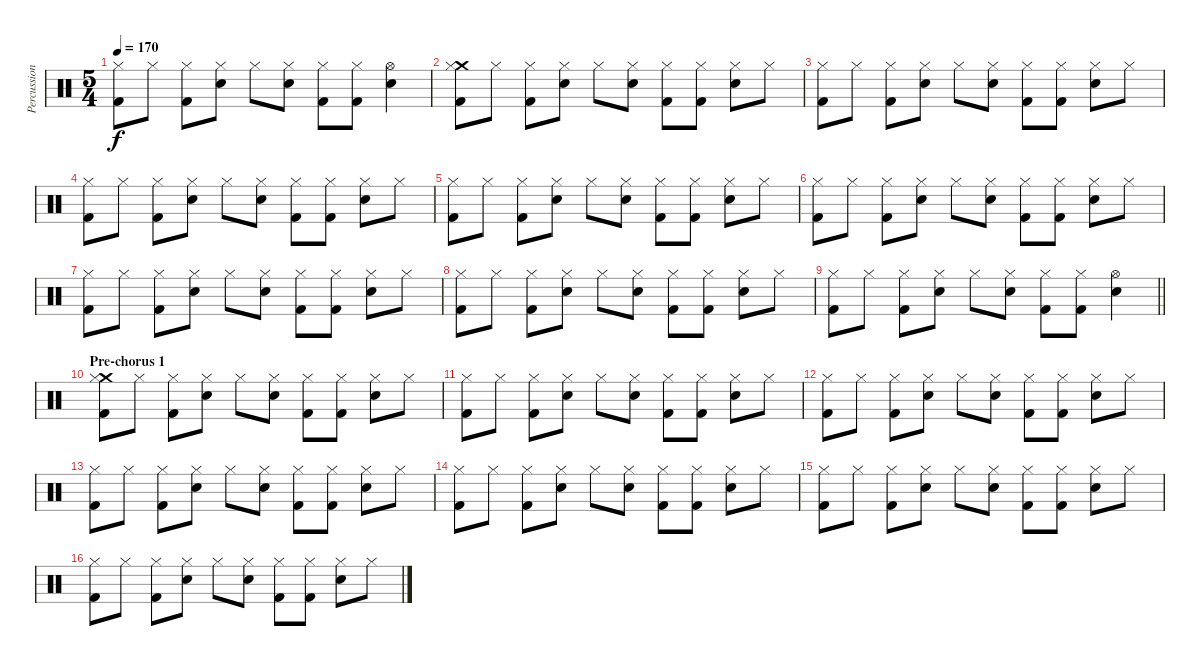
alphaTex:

\track ("Percussion" "Percussion") {instrument percussion}
\staff {score}
\articulation defaults
\ts (5 4)
\tempo 170
\clef neutral
\ks c
("Hi-Hat (closed)" "Kick (hit) 2").8{dy f} "Hi-Hat (closed)".8 ("Hi-Hat (closed)" "Kick (hit) 2").8 ("Hi-Hat (closed)" "Electric Snare (hit)").8 "Hi-Hat (closed)".8 ("Hi-Hat (closed)" "Electric Snare (hit)").8 ("Hi-Hat (closed)" "Kick (hit) 2").8 ("Hi-Hat (closed)" "Kick (hit) 2").8 ("Hi-Hat (open)" "Electric Snare (hit)").4 |
("Crash medium (hit)" "Hi-Hat (closed)" "Kick (hit) 2").8 "Hi-Hat (closed)".8 ("Hi-Hat (closed)" "Kick (hit) 2").8 ("Hi-Hat (closed)" "Electric Snare (hit)").8 "Hi-Hat (closed)".8 ("Hi-Hat (closed)" "Electric Snare (hit)").8 ("Hi-Hat (closed)" "Kick (hit) 2").8 ("Hi-Hat (closed)" "Kick (hit) 2").8 ("Hi-Hat (closed)" "Electric Snare (hit)").8 "Hi-Hat (closed)".8 |
("Hi-Hat (closed)" "Kick (hit) 2").8 "Hi-Hat (closed)".8 ("Hi-Hat (closed)" "Kick (hit) 2").8 ("Hi-Hat (closed)" "Electric Snare (hit)").8 "Hi-Hat (closed)".8 ("Hi-Hat (closed)" "Electric Snare (hit)").8 ("Hi-Hat (closed)" "Kick (hit) 2").8 ("Hi-Hat (closed)" "Kick (hit) 2").8 ("Hi-Hat (closed)" "Electric Snare (hit)").8 "Hi-Hat (closed)".8 |
("Hi-Hat (closed)" "Kick (hit) 2").8 "Hi-Hat (closed)".8 ("Hi-Hat (closed)" "Kick (hit) 2").8 ("Hi-Hat (closed)" "Electric Snare (hit)").8 "Hi-Hat (closed)".8 ("Hi-Hat (closed)" "Electric Snare (hit)").8 ("Hi-Hat (closed)" "Kick (hit) 2").8 ("Hi-Hat (closed)" "Kick (hit) 2").8 ("Hi-Hat (closed)" "Electric Snare (hit)").8 "Hi-Hat (closed)".8 |
("Hi-Hat (closed)" "Kick (hit) 2").8 "Hi-Hat (closed)".8 ("Hi-Hat (closed)" "Kick (hit) 2").8 ("Hi-Hat (closed)" "Electric Snare (hit)").8 "Hi-Hat (closed)".8 ("Hi-Hat (closed)" "Electric Snare (hit)").8 ("Hi-Hat (closed)" "Kick (hit) 2").8 ("Hi-Hat (closed)" "Kick (hit) 2").8 ("Hi-Hat (closed)" "Electric Snare (hit)").8 "Hi-Hat (closed)".8 |
("Hi-Hat (closed)" "Kick (hit) 2").8 "Hi-Hat (closed)".8 ("Hi-Hat (closed)" "Kick (hit) 2").8 ("Hi-Hat (closed)" "Electric Snare (hit)").8 "Hi-Hat (closed)".8 ("Hi-Hat (closed)" "Electric Snare (hit)").8 ("Hi-Hat (closed)" "Kick (hit) 2").8 ("Hi-Hat (closed)" "Kick (hit) 2").8 ("Hi-Hat (closed)" "Electric Snare (hit)").8 "Hi-Hat (closed)".8 |
("Hi-Hat (closed)" "Kick (hit) 2").8 "Hi-Hat (closed)".8 ("Hi-Hat (closed)" "Kick (hit) 2").8 ("Hi-Hat (closed)" "Electric Snare (hit)").8 "Hi-Hat (closed)".8 ("Hi-Hat (closed)" "Electric Snare (hit)").8 ("Hi-Hat (closed)" "Kick (hit) 2").8 ("Hi-Hat (closed)" "Kick (hit) 2").8 ("Hi-Hat (closed)" "Electric Snare (hit)").8 "Hi-Hat (closed)".8 |
("Hi-Hat (closed)" "Kick (hit) 2").8 "Hi-Hat (closed)".8 ("Hi-Hat (closed)" "Kick (hit) 2").8 ("Hi-Hat (closed)" "Electric Snare (hit)").8 "Hi-Hat (closed)".8 ("Hi-Hat (closed)" "Electric Snare (hit)").8 ("Hi-Hat (closed)" "Kick (hit) 2").8 ("Hi-Hat (closed)" "Kick (hit) 2").8 ("Hi-Hat (closed)" "Electric Snare (hit)").8 "Hi-Hat (closed)".8 |
\barLineRight lightlight
("Hi-Hat (closed)" "Kick (hit) 2").8 "Hi-Hat (closed)".8 ("Hi-Hat (closed)" "Kick (hit) 2").8 ("Hi-Hat (closed)" "Electric Snare (hit)").8 "Hi-Hat (closed)".8 ("Hi-Hat (closed)" "Electric Snare (hit)").8 ("Hi-Hat (closed)" "Kick (hit) 2").8 ("Hi-Hat (closed)" "Kick (hit) 2").8 ("Hi-Hat (open)" "Electric Snare (hit)").4 |
\section ("" "Pre-chorus 1")
("Crash medium (hit)" "Hi-Hat (closed)" "Kick (hit) 2").8 "Hi-Hat (closed)".8 ("Hi-Hat (closed)" "Kick (hit) 2").8 ("Hi-Hat (closed)" "Electric Snare (hit)").8 "Hi-Hat (closed)".8 ("Hi-Hat (closed)" "Electric Snare (hit)").8 ("Hi-Hat (closed)" "Kick (hit) 2").8 ("Hi-Hat (closed)" "Kick (hit) 2").8 ("Hi-Hat (closed)" "Electric Snare (hit)").8 "Hi-Hat (closed)".8 |
("Hi-Hat (closed)" "Kick (hit) 2").8 "Hi-Hat (closed)".8 ("Hi-Hat (closed)" "Kick (hit) 2").8 ("Hi-Hat (closed)" "Electric Snare (hit)").8 "Hi-Hat (closed)".8 ("Hi-Hat (closed)" "Electric Snare (hit)").8 ("Hi-Hat (closed)" "Kick (hit) 2").8 ("Hi-Hat (closed)" "Kick (hit) 2").8 ("Hi-Hat (closed)" "Electric Snare (hit)").8 "Hi-Hat (closed)".8 |
("Hi-Hat (closed)" "Kick (hit) 2").8 "Hi-Hat (closed)".8 ("Hi-Hat (closed)" "Kick (hit) 2").8 ("Hi-Hat (closed)" "Electric Snare (hit)").8 "Hi-Hat (closed)".8 ("Hi-Hat (closed)" "Electric Snare (hit)").8 ("Hi-Hat (closed)" "Kick (hit) 2").8 ("Hi-Hat (closed)" "Kick (hit) 2").8 ("Hi-Hat (closed)" "Electric Snare (hit)").8 "Hi-Hat (closed)".8 |
("Hi-Hat (closed)" "Kick (hit) 2").8 "Hi-Hat (closed)".8 ("Hi-Hat (closed)" "Kick (hit) 2").8 ("Hi-Hat (closed)" "Electric Snare (hit)").8 "Hi-Hat (closed)".8 ("Hi-Hat (closed)" "Electric Snare (hit)").8 ("Hi-Hat (closed)" "Kick (hit) 2").8 ("Hi-Hat (closed)" "Kick (hit) 2").8 ("Hi-Hat (closed)" "Electric Snare (hit)").8 "Hi-Hat (closed)".8 |
("Hi-Hat (closed)" "Kick (hit) 2").8 "Hi-Hat (closed)".8 ("Hi-Hat (closed)" "Kick (hit) 2").8 ("Hi-Hat (closed)" "Electric Snare (hit)").8 "Hi-Hat (closed)".8 ("Hi-Hat (closed)" "Electric Snare (hit)").8 ("Hi-Hat (closed)" "Kick (hit) 2").8 ("Hi-Hat (closed)" "Kick (hit) 2").8 ("Hi-Hat (closed)" "Electric Snare (hit)").8 "Hi-Hat (closed)".8 |
("Hi-Hat (closed)" "Kick (hit) 2").8 "Hi-Hat (closed)".8 ("Hi-Hat (closed)" "Kick (hit) 2").8 ("Hi-Hat (closed)" "Electric Snare (hit)").8 "Hi-Hat (closed)".8 ("Hi-Hat (closed)" "Electric Snare (hit)").8 ("Hi-Hat (closed)" "Kick (hit) 2").8 ("Hi-Hat (closed)" "Kick (hit) 2").8 ("Hi-Hat (closed)" "Electric Snare (hit)").8 "Hi-Hat (closed)".8 |
("Hi-Hat (closed)" "Kick (hit) 2").8 "Hi-Hat (closed)".8 ("Hi-Hat (closed)" "Kick (hit) 2").8 ("Hi-Hat (closed)" "Electric Snare (hit)").8 "Hi-Hat (closed)".8 ("Hi-Hat (closed)" "Electric Snare (hit)").8 ("Hi-Hat (closed)" "Kick (hit) 2").8 ("Hi-Hat (closed)" "Kick (hit) 2").8 ("Hi-Hat (closed)" "Electric Snare (hit)").8 "Hi-Hat (closed)".8
